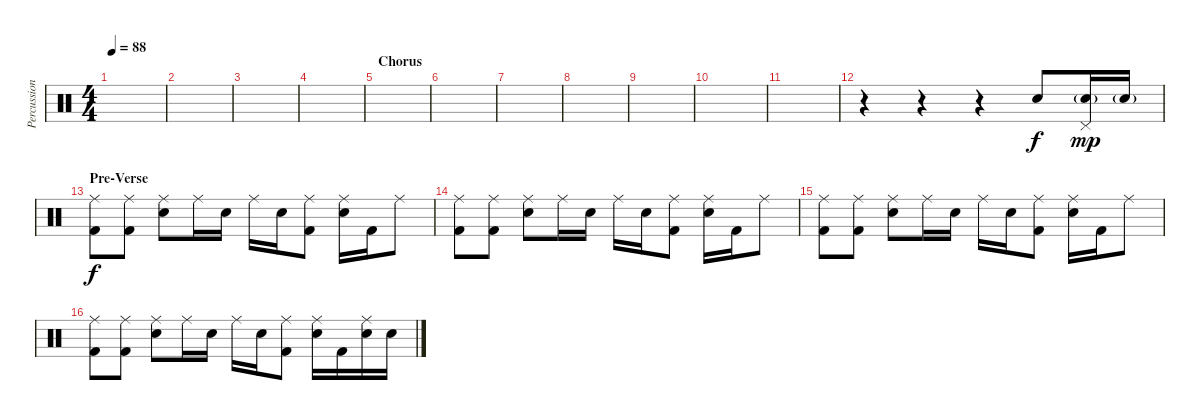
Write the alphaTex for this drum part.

\track ("Percussion" "Percussion") {instrument percussion}
\staff {score}
\articulation defaults
\ts (4 4)
\tempo 88
\clef neutral
\ks c
|
|
|
|
\section ("" "Chorus")
|
|
|
|
|
|
|
r.4 r.4 r.4 "Electric Snare (hit)".8 ("Electric Snare (hit)"{g} "Pedal Hi-Hat (hit)").16{dy mp} "Electric Snare (hit)"{g}.16 |
\section ("" "Pre-Verse")
("Kick (hit) 2" "Ride (middle)").8{dy f} ("Kick (hit) 2" "Ride (middle)").8 ("Electric Snare (hit)" "Ride (middle)").8 "Ride (middle)".16 "Electric Snare (hit)".16 "Ride (middle)".16 "Electric Snare (hit)".16 ("Kick (hit) 2" "Ride (middle)").8 ("Electric Snare (hit)" "Ride (middle)").16 "Kick (hit) 2".16 "Ride (middle)".8 |
("Kick (hit) 2" "Ride (middle)").8 ("Kick (hit) 2" "Ride (middle)").8 ("Electric Snare (hit)" "Ride (middle)").8 "Ride (middle)".16 "Electric Snare (hit)".16 "Ride (middle)".16 "Electric Snare (hit)".16 ("Kick (hit) 2" "Ride (middle)").8 ("Electric Snare (hit)" "Ride (middle)").16 "Kick (hit) 2".16 "Ride (middle)".8 |
("Kick (hit) 2" "Ride (middle)").8 ("Kick (hit) 2" "Ride (middle)").8 ("Electric Snare (hit)" "Ride (middle)").8 "Ride (middle)".16 "Electric Snare (hit)".16 "Ride (middle)".16 "Electric Snare (hit)".16 ("Kick (hit) 2" "Ride (middle)").8 ("Electric Snare (hit)" "Ride (middle)").16 "Kick (hit) 2".16 "Ride (middle)".8 |
("Kick (hit) 2" "Ride (middle)").8 ("Kick (hit) 2" "Ride (middle)").8 ("Electric Snare (hit)" "Ride (middle)").8 "Ride (middle)".16 "Electric Snare (hit)".16 "Ride (middle)".16 "Electric Snare (hit)".16 ("Kick (hit) 2" "Ride (middle)").8 ("Electric Snare (hit)" "Ride (middle)").16 "Kick (hit) 2".16 ("Electric Snare (hit)" "Ride (middle)").16 "Electric Snare (hit)".16
